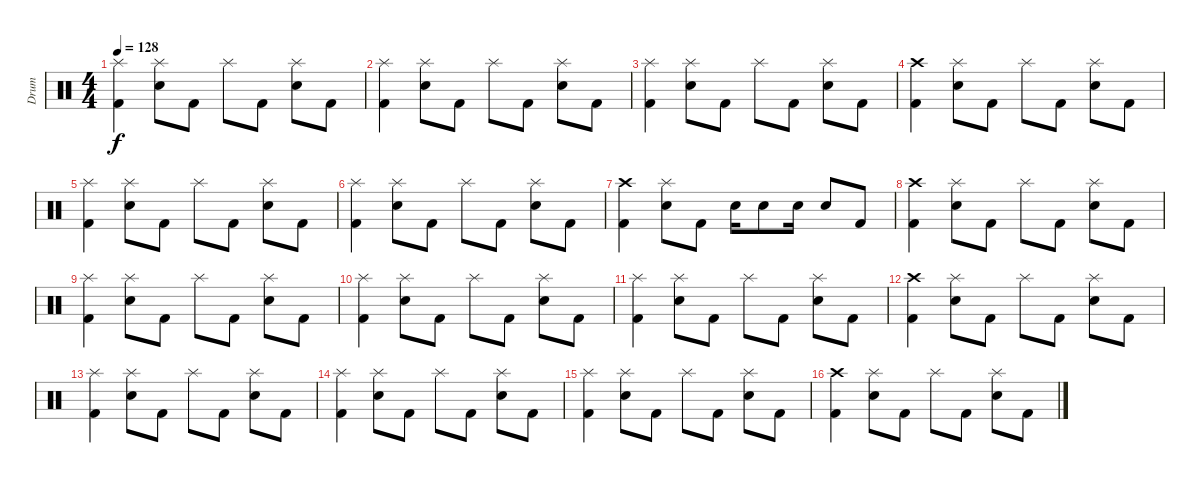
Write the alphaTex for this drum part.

\track ("Drum" "Drum") {instrument percussion}
\staff {score}
\articulation defaults
\ts (4 4)
\tempo 128
\clef neutral
\ks c
("Splash (hit)" "Kick (hit) 2").4{dy f} ("Splash (hit)" "Electric Snare (hit)").8 "Kick (hit) 2".8 "Splash (hit)".8 "Kick (hit) 2".8 ("Splash (hit)" "Electric Snare (hit)").8 "Kick (hit) 2".8 |
("Splash (hit)" "Kick (hit) 2").4 ("Splash (hit)" "Electric Snare (hit)").8 "Kick (hit) 2".8 "Splash (hit)".8 "Kick (hit) 2".8 ("Splash (hit)" "Electric Snare (hit)").8 "Kick (hit) 2".8 |
("Splash (hit)" "Kick (hit) 2").4 ("Splash (hit)" "Electric Snare (hit)").8 "Kick (hit) 2".8 "Splash (hit)".8 "Kick (hit) 2".8 ("Splash (hit)" "Electric Snare (hit)").8 "Kick (hit) 2".8 |
("Crash high (hit)" "Kick (hit) 2").4 ("Splash (hit)" "Electric Snare (hit)").8 "Kick (hit) 2".8 "Splash (hit)".8 "Kick (hit) 2".8 ("Splash (hit)" "Electric Snare (hit)").8 "Kick (hit) 2".8 |
("Splash (hit)" "Kick (hit) 2").4 ("Splash (hit)" "Electric Snare (hit)").8 "Kick (hit) 2".8 "Splash (hit)".8 "Kick (hit) 2".8 ("Splash (hit)" "Electric Snare (hit)").8 "Kick (hit) 2".8 |
("Splash (hit)" "Kick (hit) 2").4 ("Splash (hit)" "Electric Snare (hit)").8 "Kick (hit) 2".8 "Splash (hit)".8 "Kick (hit) 2".8 ("Splash (hit)" "Electric Snare (hit)").8 "Kick (hit) 2".8 |
("Crash high (hit)" "Kick (hit) 2").4 ("Splash (hit)" "Electric Snare (hit)").8 "Kick (hit) 2".8 "Electric Snare (hit)".16 "Electric Snare (hit)".8 "Electric Snare (hit)".16 "Electric Snare (hit)".8 "Kick (hit) 2".8 |
("Crash high (hit)" "Kick (hit) 2").4 ("Splash (hit)" "Electric Snare (hit)").8 "Kick (hit) 2".8 "Splash (hit)".8 "Kick (hit) 2".8 ("Splash (hit)" "Electric Snare (hit)").8 "Kick (hit) 2".8 |
("Splash (hit)" "Kick (hit) 2").4 ("Splash (hit)" "Electric Snare (hit)").8 "Kick (hit) 2".8 "Splash (hit)".8 "Kick (hit) 2".8 ("Splash (hit)" "Electric Snare (hit)").8 "Kick (hit) 2".8 |
("Splash (hit)" "Kick (hit) 2").4 ("Splash (hit)" "Electric Snare (hit)").8 "Kick (hit) 2".8 "Splash (hit)".8 "Kick (hit) 2".8 ("Splash (hit)" "Electric Snare (hit)").8 "Kick (hit) 2".8 |
("Splash (hit)" "Kick (hit) 2").4 ("Splash (hit)" "Electric Snare (hit)").8 "Kick (hit) 2".8 "Splash (hit)".8 "Kick (hit) 2".8 ("Splash (hit)" "Electric Snare (hit)").8 "Kick (hit) 2".8 |
("Crash high (hit)" "Kick (hit) 2").4 ("Splash (hit)" "Electric Snare (hit)").8 "Kick (hit) 2".8 "Splash (hit)".8 "Kick (hit) 2".8 ("Splash (hit)" "Electric Snare (hit)").8 "Kick (hit) 2".8 |
("Splash (hit)" "Kick (hit) 2").4 ("Splash (hit)" "Electric Snare (hit)").8 "Kick (hit) 2".8 "Splash (hit)".8 "Kick (hit) 2".8 ("Splash (hit)" "Electric Snare (hit)").8 "Kick (hit) 2".8 |
("Splash (hit)" "Kick (hit) 2").4 ("Splash (hit)" "Electric Snare (hit)").8 "Kick (hit) 2".8 "Splash (hit)".8 "Kick (hit) 2".8 ("Splash (hit)" "Electric Snare (hit)").8 "Kick (hit) 2".8 |
("Splash (hit)" "Kick (hit) 2").4 ("Splash (hit)" "Electric Snare (hit)").8 "Kick (hit) 2".8 "Splash (hit)".8 "Kick (hit) 2".8 ("Splash (hit)" "Electric Snare (hit)").8 "Kick (hit) 2".8 |
("Crash high (hit)" "Kick (hit) 2").4 ("Splash (hit)" "Electric Snare (hit)").8 "Kick (hit) 2".8 "Splash (hit)".8 "Kick (hit) 2".8 ("Splash (hit)" "Electric Snare (hit)").8 "Kick (hit) 2".8
